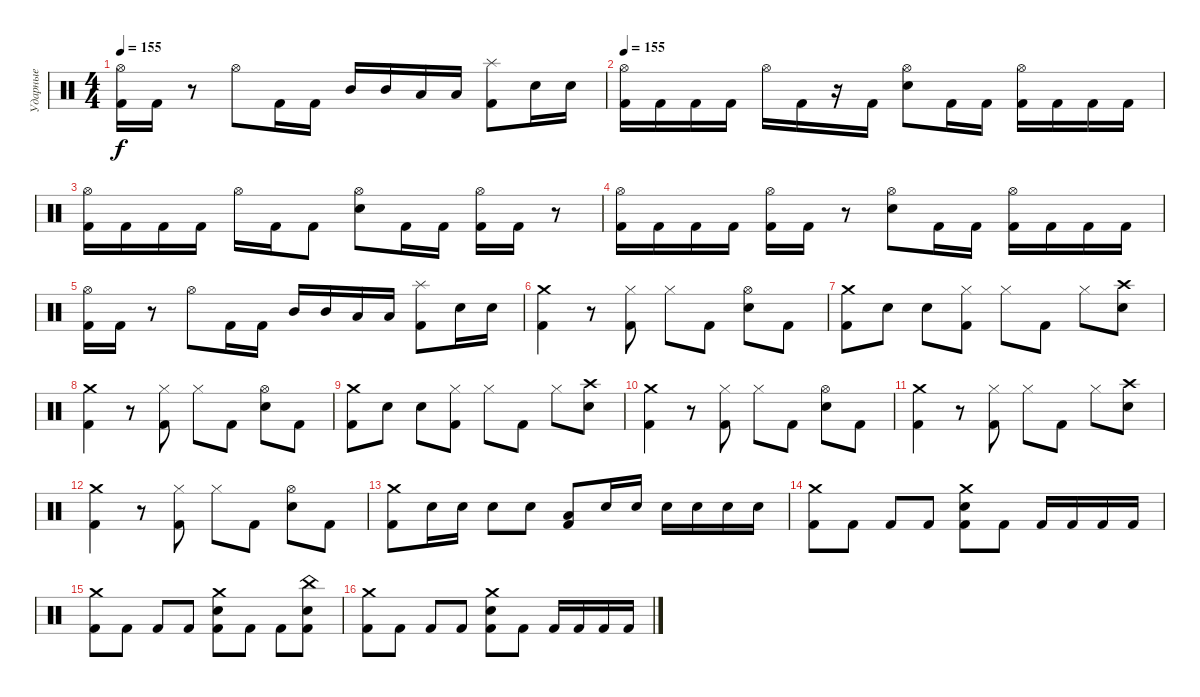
\track ("Ударные" "Ударные") {instrument percussion}
\staff {score}
\articulation defaults
\ts (4 4)
\tempo 155
\clef neutral
\ks c
("Hi-Hat (open)" "Kick (hit) 2").16{dy f} "Kick (hit) 2".16 r.8 "Hi-Hat (open)".8 "Kick (hit) 2".16 "Kick (hit) 2".16 "Mid Tom (hit)".16 "Mid Tom (hit)".16 "Low Tom (hit)".16 "Low Tom (hit)".16 ("Splash (hit)" "Kick (hit) 2").8 "Electric Snare (hit)".16 "Electric Snare (hit)".16 |
\tempo 155
("Hi-Hat (open)" "Kick (hit) 2").16 "Kick (hit) 2".16 "Kick (hit) 2".16 "Kick (hit) 2".16 "Hi-Hat (open)".16 "Kick (hit) 2".16 r.16 "Kick (hit) 2".16 ("Hi-Hat (open)" "Electric Snare (hit)").8 "Kick (hit) 2".16 "Kick (hit) 2".16 ("Hi-Hat (open)" "Kick (hit) 2").16 "Kick (hit) 2".16 "Kick (hit) 2".16 "Kick (hit) 2".16 |
("Hi-Hat (open)" "Kick (hit) 2").16 "Kick (hit) 2".16 "Kick (hit) 2".16 "Kick (hit) 2".16 "Hi-Hat (open)".16 "Kick (hit) 2".16 "Kick (hit) 2".8 ("Hi-Hat (open)" "Electric Snare (hit)").8 "Kick (hit) 2".16 "Kick (hit) 2".16 ("Hi-Hat (open)" "Kick (hit) 2").16 "Kick (hit) 2".16 r.8 |
("Hi-Hat (open)" "Kick (hit) 2").16 "Kick (hit) 2".16 "Kick (hit) 2".16 "Kick (hit) 2".16 ("Hi-Hat (open)" "Kick (hit) 2").16 "Kick (hit) 2".16 r.8 ("Hi-Hat (open)" "Electric Snare (hit)").8 "Kick (hit) 2".16 "Kick (hit) 2".16 ("Hi-Hat (open)" "Kick (hit) 2").16 "Kick (hit) 2".16 "Kick (hit) 2".16 "Kick (hit) 2".16 |
("Hi-Hat (open)" "Kick (hit) 2").16 "Kick (hit) 2".16 r.8 "Hi-Hat (open)".8 "Kick (hit) 2".16 "Kick (hit) 2".16 "Mid Tom (hit)".16 "Mid Tom (hit)".16 "Low Tom (hit)".16 "Low Tom (hit)".16 ("Splash (hit)" "Kick (hit) 2").8 "Electric Snare (hit)".16 "Electric Snare (hit)".16 |
("Crash medium (hit)" "Kick (hit) 2").4 r.8 ("Hi-Hat (closed)" "Kick (hit) 2").8 "Hi-Hat (closed)".8 "Kick (hit) 2".8 ("Hi-Hat (open)" "Electric Snare (hit)").8 "Kick (hit) 2".8 |
("Crash medium (hit)" "Kick (hit) 2").8 "Electric Snare (hit)".8 "Electric Snare (hit)".8 ("Hi-Hat (closed)" "Kick (hit) 2").8 "Hi-Hat (closed)".8 "Kick (hit) 2".8 "Hi-Hat (closed)".8 ("Crash high (hit)" "Electric Snare (hit)").8 |
("Crash medium (hit)" "Kick (hit) 2").4 r.8 ("Hi-Hat (closed)" "Kick (hit) 2").8 "Hi-Hat (closed)".8 "Kick (hit) 2".8 ("Hi-Hat (open)" "Electric Snare (hit)").8 "Kick (hit) 2".8 |
("Crash medium (hit)" "Kick (hit) 2").8 "Electric Snare (hit)".8 "Electric Snare (hit)".8 ("Hi-Hat (closed)" "Kick (hit) 2").8 "Hi-Hat (closed)".8 "Kick (hit) 2".8 "Hi-Hat (closed)".8 ("Crash high (hit)" "Electric Snare (hit)").8 |
("Crash medium (hit)" "Kick (hit) 2").4 r.8 ("Hi-Hat (closed)" "Kick (hit) 2").8 "Hi-Hat (closed)".8 "Kick (hit) 2".8 ("Hi-Hat (open)" "Electric Snare (hit)").8 "Kick (hit) 2".8 |
("Crash medium (hit)" "Kick (hit) 2").4 r.8 ("Hi-Hat (closed)" "Kick (hit) 2").8 "Hi-Hat (closed)".8 "Kick (hit) 2".8 "Hi-Hat (closed)".8 ("Crash high (hit)" "Electric Snare (hit)").8 |
("Crash medium (hit)" "Kick (hit) 2").4 r.8 ("Hi-Hat (closed)" "Kick (hit) 2").8 "Hi-Hat (closed)".8 "Kick (hit) 2".8 ("Hi-Hat (open)" "Electric Snare (hit)").8 "Kick (hit) 2".8 |
("Crash medium (hit)" "Kick (hit) 2").8 "Electric Snare (hit)".16 "Electric Snare (hit)".16 "Electric Snare (hit)".8 "Electric Snare (hit)".8 ("Low Tom (hit)" "Kick (hit) 2").8 "Electric Snare (hit)".16 "Electric Snare (hit)".16 "Electric Snare (hit)".16 "Electric Snare (hit)".16 "Electric Snare (hit)".16 "Electric Snare (hit)".16 |
("Crash medium (hit)" "Kick (hit) 2").8 "Kick (hit) 2".8 "Kick (hit) 2".8 "Kick (hit) 2".8 ("Crash medium (hit)" "Electric Snare (hit)" "Kick (hit) 2").8 "Kick (hit) 2".8 "Kick (hit) 2".16 "Kick (hit) 2".16 "Kick (hit) 2".16 "Kick (hit) 2".16 |
("Crash medium (hit)" "Kick (hit) 2").8 "Kick (hit) 2".8 "Kick (hit) 2".8 "Kick (hit) 2".8 ("Crash medium (hit)" "Electric Snare (hit)" "Kick (hit) 2").8 "Kick (hit) 2".8 "Kick (hit) 2".8 ("China (hit)" "Electric Snare (hit)" "Kick (hit) 2").8 |
("Crash medium (hit)" "Kick (hit) 2").8 "Kick (hit) 2".8 "Kick (hit) 2".8 "Kick (hit) 2".8 ("Crash medium (hit)" "Electric Snare (hit)" "Kick (hit) 2").8 "Kick (hit) 2".8 "Kick (hit) 2".16 "Kick (hit) 2".16 "Kick (hit) 2".16 "Kick (hit) 2".16
